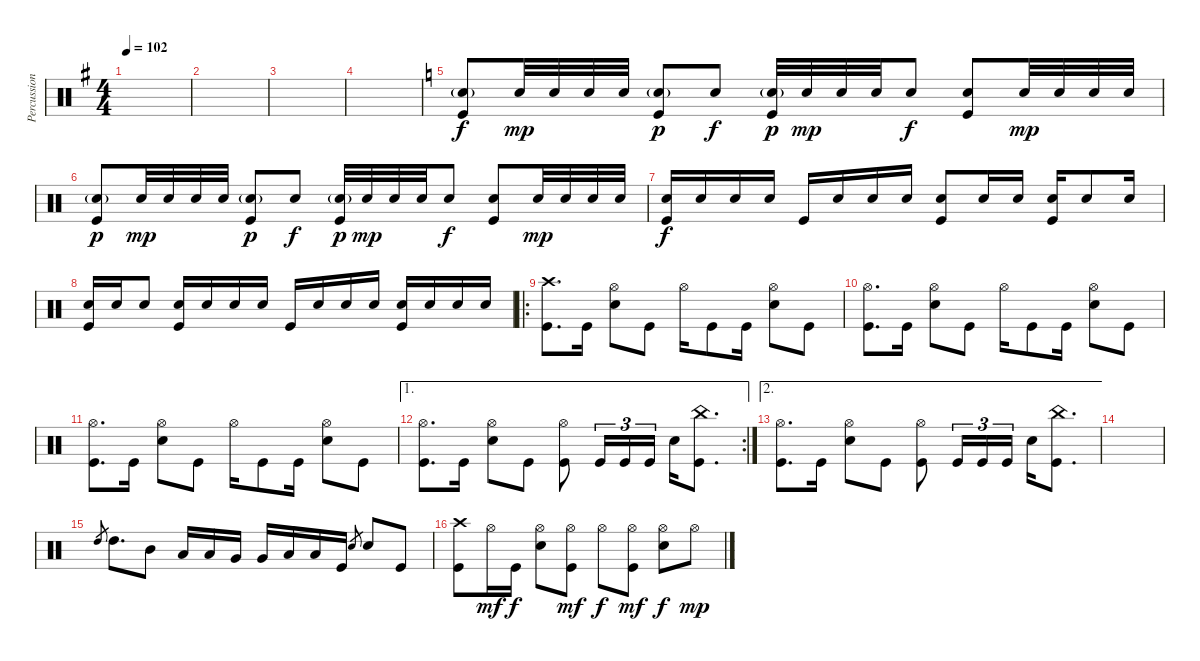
\track ("Percussion" "Percussion") {instrument percussion}
\staff {score}
\articulation defaults
\ts (4 4)
\tempo 102
\clef neutral
\ks g
|
|
|
|
\ks c
("Electric Snare (hit)"{g} "Kick (hit)").8 "Electric Snare (hit)".32{dy mp} "Electric Snare (hit)".32 "Electric Snare (hit)".32 "Electric Snare (hit)".32 ("Electric Snare (hit)"{g} "Kick (hit)").8{dy p} "Electric Snare (hit)".8{dy f} ("Electric Snare (hit)"{g} "Kick (hit)").32{dy p} "Electric Snare (hit)".32{dy mp} "Electric Snare (hit)".32 "Electric Snare (hit)".32 "Electric Snare (hit)".8{dy f} ("Electric Snare (hit)" "Kick (hit)").8 "Electric Snare (hit)".32{dy mp} "Electric Snare (hit)".32 "Electric Snare (hit)".32 "Electric Snare (hit)".32 |
("Electric Snare (hit)"{g} "Kick (hit)").8{dy p} "Electric Snare (hit)".32{dy mp} "Electric Snare (hit)".32 "Electric Snare (hit)".32 "Electric Snare (hit)".32 ("Electric Snare (hit)"{g} "Kick (hit)").8{dy p} "Electric Snare (hit)".8{dy f} ("Electric Snare (hit)"{g} "Kick (hit)").32{dy p} "Electric Snare (hit)".32{dy mp} "Electric Snare (hit)".32 "Electric Snare (hit)".32 "Electric Snare (hit)".8{dy f} ("Electric Snare (hit)" "Kick (hit)").8 "Electric Snare (hit)".32{dy mp} "Electric Snare (hit)".32 "Electric Snare (hit)".32 "Electric Snare (hit)".32 |
("Electric Snare (hit)" "Kick (hit)").16{dy f} "Electric Snare (hit)".16 "Electric Snare (hit)".16 "Electric Snare (hit)".16 "Kick (hit)".16 "Electric Snare (hit)".16 "Electric Snare (hit)".16 "Electric Snare (hit)".16 ("Electric Snare (hit)" "Kick (hit)").8 "Electric Snare (hit)".16 "Electric Snare (hit)".16 ("Electric Snare (hit)" "Kick (hit)").16 "Electric Snare (hit)".8 "Electric Snare (hit)".16 |
("Electric Snare (hit)" "Kick (hit)").16 "Electric Snare (hit)".16 "Electric Snare (hit)".8 ("Electric Snare (hit)" "Kick (hit)").16 "Electric Snare (hit)".16 "Electric Snare (hit)".16 "Electric Snare (hit)".16 "Kick (hit)".16 "Electric Snare (hit)".16 "Electric Snare (hit)".16 "Electric Snare (hit)".16 ("Electric Snare (hit)" "Kick (hit)").16 "Electric Snare (hit)".16 "Electric Snare (hit)".16 "Electric Snare (hit)".16 |
\ro
("Crash high (hit)" "Kick (hit)").8{d} "Kick (hit)".16 ("Hi-Hat (open)" "Electric Snare (hit)").8 "Kick (hit)".8 "Hi-Hat (open)".16 "Kick (hit)".8 "Kick (hit)".16 ("Hi-Hat (open)" "Electric Snare (hit)").8 "Kick (hit)".8 |
("Hi-Hat (open)" "Kick (hit)").8{d} "Kick (hit)".16 ("Hi-Hat (open)" "Electric Snare (hit)").8 "Kick (hit)".8 "Hi-Hat (open)".16 "Kick (hit)".8 "Kick (hit)".16 ("Hi-Hat (open)" "Electric Snare (hit)").8 "Kick (hit)".8 |
("Hi-Hat (open)" "Kick (hit)").8{d} "Kick (hit)".16 ("Hi-Hat (open)" "Electric Snare (hit)").8 "Kick (hit)".8 "Hi-Hat (open)".16 "Kick (hit)".8 "Kick (hit)".16 ("Hi-Hat (open)" "Electric Snare (hit)").8 "Kick (hit)".8 |
\ae 1
\rc 2
("Hi-Hat (open)" "Kick (hit)").8{d} "Kick (hit)".16 ("Hi-Hat (open)" "Electric Snare (hit)").8 "Kick (hit)".8 ("Hi-Hat (open)" "Kick (hit)").8 "Kick (hit)".16{tu (3 2)} "Kick (hit)".16{tu (3 2)} "Kick (hit)".16{tu (3 2)} "Electric Snare (hit)".16 ("China (hit)" "Kick (hit)").8{d} |
\ae 2
("Hi-Hat (open)" "Kick (hit)").8{d} "Kick (hit)".16 ("Hi-Hat (open)" "Electric Snare (hit)").8 "Kick (hit)".8 ("Hi-Hat (open)" "Kick (hit)").8 "Kick (hit)".16{tu (3 2)} "Kick (hit)".16{tu (3 2)} "Kick (hit)".16{tu (3 2)} "Electric Snare (hit)".16 ("China (hit)" "Kick (hit)").8{d} |
|
"High Tom (hit)".8{gr} "High Tom (hit)".8{d} "Mid Tom (hit)".8 "Low Tom (hit)".16 "Low Tom (hit)".16 "Very Low Tom (hit)".16 "Very Low Tom (hit)".16 "Low Floor Tom (hit)".16 "Low Floor Tom (hit)".16 "Kick (hit)".16 "Electric Snare (hit)".8{gr} "Electric Snare (hit)".8 "Kick (hit)".8 |
("Crash high (hit)" "Kick (hit)").8 "Hi-Hat (open)".16{dy mf} "Kick (hit)".16{dy f} ("Hi-Hat (open)" "Electric Snare (hit)").8 ("Hi-Hat (open)" "Kick (hit)").8{dy mf} "Hi-Hat (open)".8{dy f} ("Hi-Hat (open)" "Kick (hit)").8{dy mf} ("Hi-Hat (open)" "Electric Snare (hit)").8{dy f} "Hi-Hat (open)".8{dy mp}
